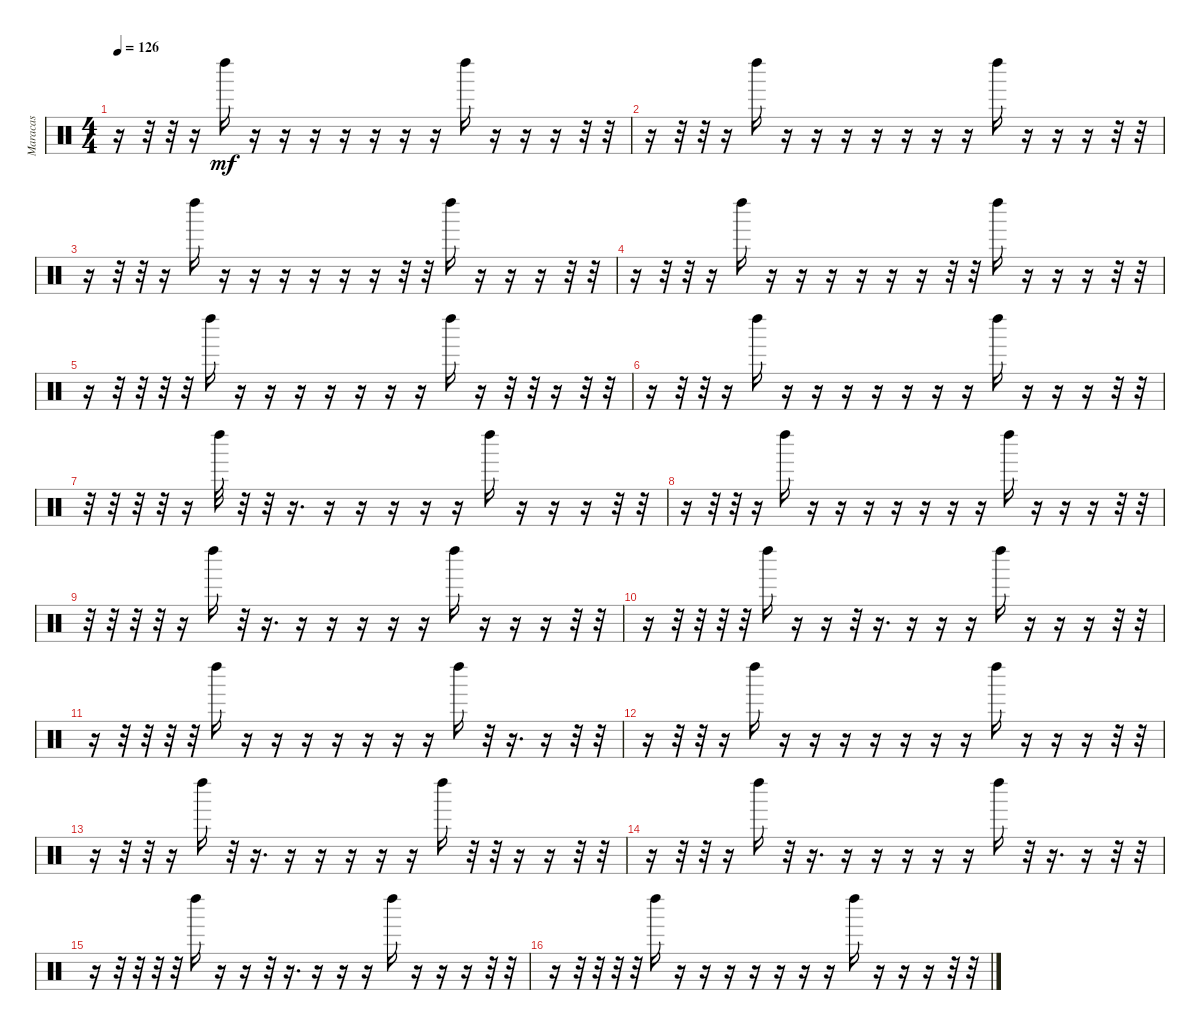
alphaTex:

\track ("Maracas" "Maracas") {instrument percussion}
\staff {score}
\articulation defaults
\ts (4 4)
\tempo 126
\clef neutral
\ks c
r.16{dy mf} r.32 r.32 r.16 "Left Maraca (hit)".16 r.16 r.16 r.16 r.16 r.16 r.16 r.16 "Left Maraca (hit)".16 r.16 r.16 r.16 r.32 r.32 |
r.16 r.32 r.32 r.16 "Left Maraca (hit)".16 r.16 r.16 r.16 r.16 r.16 r.16 r.16 "Left Maraca (hit)".16 r.16 r.16 r.16 r.32 r.32 |
r.16 r.32 r.32 r.16 "Left Maraca (hit)".16 r.16 r.16 r.16 r.16 r.16 r.16 r.32 r.32 "Left Maraca (hit)".16 r.16 r.16 r.16 r.32 r.32 |
r.16 r.32 r.32 r.16 "Left Maraca (hit)".16 r.16 r.16 r.16 r.16 r.16 r.16 r.32 r.32 "Left Maraca (hit)".16 r.16 r.16 r.16 r.32 r.32 |
r.16 r.32 r.32 r.32 r.32 "Left Maraca (hit)".16 r.16 r.16 r.16 r.16 r.16 r.16 r.16 "Left Maraca (hit)".16 r.16 r.32 r.32 r.16 r.32 r.32 |
r.16 r.32 r.32 r.16 "Left Maraca (hit)".16 r.16 r.16 r.16 r.16 r.16 r.16 r.16 "Left Maraca (hit)".16 r.16 r.16 r.16 r.32 r.32 |
r.32 r.32 r.32 r.32 r.16 "Left Maraca (hit)".32 r.32 r.32 r.16{d} r.16 r.16 r.16 r.16 r.16 "Left Maraca (hit)".16 r.16 r.16 r.16 r.32 r.32 |
r.16 r.32 r.32 r.16 "Left Maraca (hit)".16 r.16 r.16 r.16 r.16 r.16 r.16 r.16 "Left Maraca (hit)".16 r.16 r.16 r.16 r.32 r.32 |
r.32 r.32 r.32 r.32 r.16 "Left Maraca (hit)".16 r.32 r.16{d} r.16 r.16 r.16 r.16 r.16 "Left Maraca (hit)".16 r.16 r.16 r.16 r.32 r.32 |
r.16 r.32 r.32 r.32 r.32 "Left Maraca (hit)".16 r.16 r.16 r.32 r.16{d} r.16 r.16 r.16 "Left Maraca (hit)".16 r.16 r.16 r.16 r.32 r.32 |
r.16 r.32 r.32 r.32 r.32 "Left Maraca (hit)".16 r.16 r.16 r.16 r.16 r.16 r.16 r.16 "Left Maraca (hit)".16 r.32 r.16{d} r.16 r.32 r.32 |
r.16 r.32 r.32 r.16 "Left Maraca (hit)".16 r.16 r.16 r.16 r.16 r.16 r.16 r.16 "Left Maraca (hit)".16 r.16 r.16 r.16 r.32 r.32 |
r.16 r.32 r.32 r.16 "Left Maraca (hit)".16 r.32 r.16{d} r.16 r.16 r.16 r.16 r.16 "Left Maraca (hit)".16 r.32 r.32 r.16 r.16 r.32 r.32 |
r.16 r.32 r.32 r.16 "Left Maraca (hit)".16 r.32 r.16{d} r.16 r.16 r.16 r.16 r.16 "Left Maraca (hit)".16 r.32 r.16{d} r.16 r.32 r.32 |
r.16 r.32 r.32 r.32 r.32 "Left Maraca (hit)".16 r.16 r.16 r.32 r.16{d} r.16 r.16 r.16 "Left Maraca (hit)".16 r.16 r.16 r.16 r.32 r.32 |
r.16 r.32 r.32 r.32 r.32 "Left Maraca (hit)".16 r.16 r.16 r.16 r.16 r.16 r.16 r.16 "Left Maraca (hit)".16 r.16 r.16 r.16 r.32 r.32
